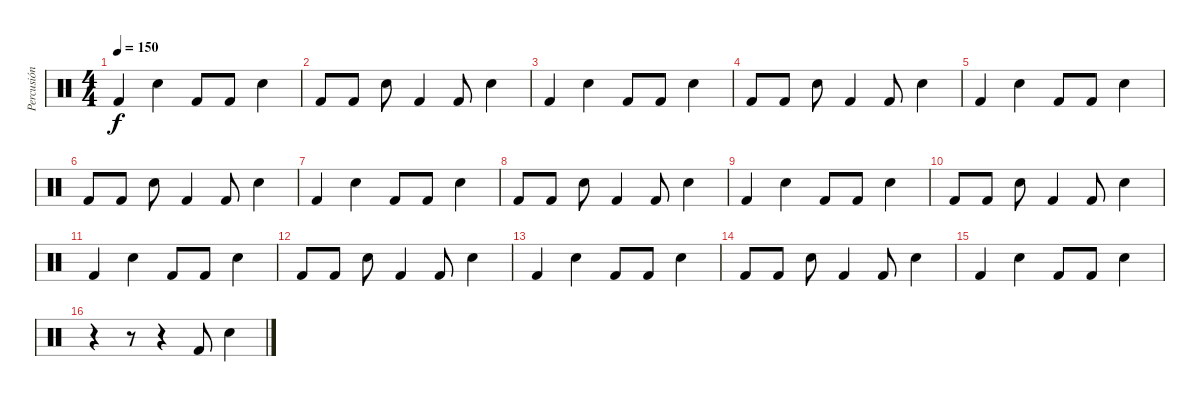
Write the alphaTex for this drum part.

\track ("Percusión" "Percusión") {instrument percussion}
\staff {score}
\articulation defaults
\ts (4 4)
\tempo 150
\clef neutral
\ks c "Kick (hit) 2".4{dy f} "Snare (hit) 2".4 "Kick (hit) 2".8 "Kick (hit) 2".8 "Snare (hit) 2".4
|
"Kick (hit) 2".8 "Kick (hit) 2".8 "Snare (hit) 2".8 "Kick (hit) 2".4 "Kick (hit) 2".8 "Snare (hit) 2".4 |
"Kick (hit) 2".4 "Snare (hit) 2".4 "Kick (hit) 2".8 "Kick (hit) 2".8 "Snare (hit) 2".4 |
"Kick (hit) 2".8 "Kick (hit) 2".8 "Snare (hit) 2".8 "Kick (hit) 2".4 "Kick (hit) 2".8 "Snare (hit) 2".4 |
"Kick (hit) 2".4 "Snare (hit) 2".4 "Kick (hit) 2".8 "Kick (hit) 2".8 "Snare (hit) 2".4 |
"Kick (hit) 2".8 "Kick (hit) 2".8 "Snare (hit) 2".8 "Kick (hit) 2".4 "Kick (hit) 2".8 "Snare (hit) 2".4 |
"Kick (hit) 2".4 "Snare (hit) 2".4 "Kick (hit) 2".8 "Kick (hit) 2".8 "Snare (hit) 2".4 |
"Kick (hit) 2".8 "Kick (hit) 2".8 "Snare (hit) 2".8 "Kick (hit) 2".4 "Kick (hit) 2".8 "Snare (hit) 2".4 |
"Kick (hit) 2".4 "Snare (hit) 2".4 "Kick (hit) 2".8 "Kick (hit) 2".8 "Snare (hit) 2".4 |
"Kick (hit) 2".8 "Kick (hit) 2".8 "Snare (hit) 2".8 "Kick (hit) 2".4 "Kick (hit) 2".8 "Snare (hit) 2".4 |
"Kick (hit) 2".4 "Snare (hit) 2".4 "Kick (hit) 2".8 "Kick (hit) 2".8 "Snare (hit) 2".4 |
"Kick (hit) 2".8 "Kick (hit) 2".8 "Snare (hit) 2".8 "Kick (hit) 2".4 "Kick (hit) 2".8 "Snare (hit) 2".4 |
"Kick (hit) 2".4 "Snare (hit) 2".4 "Kick (hit) 2".8 "Kick (hit) 2".8 "Snare (hit) 2".4 |
"Kick (hit) 2".8 "Kick (hit) 2".8 "Snare (hit) 2".8 "Kick (hit) 2".4 "Kick (hit) 2".8 "Snare (hit) 2".4 |
"Kick (hit) 2".4 "Snare (hit) 2".4 "Kick (hit) 2".8 "Kick (hit) 2".8 "Snare (hit) 2".4 |
r.4 r.8 r.4 "Kick (hit) 2".8 "Snare (hit) 2".4
